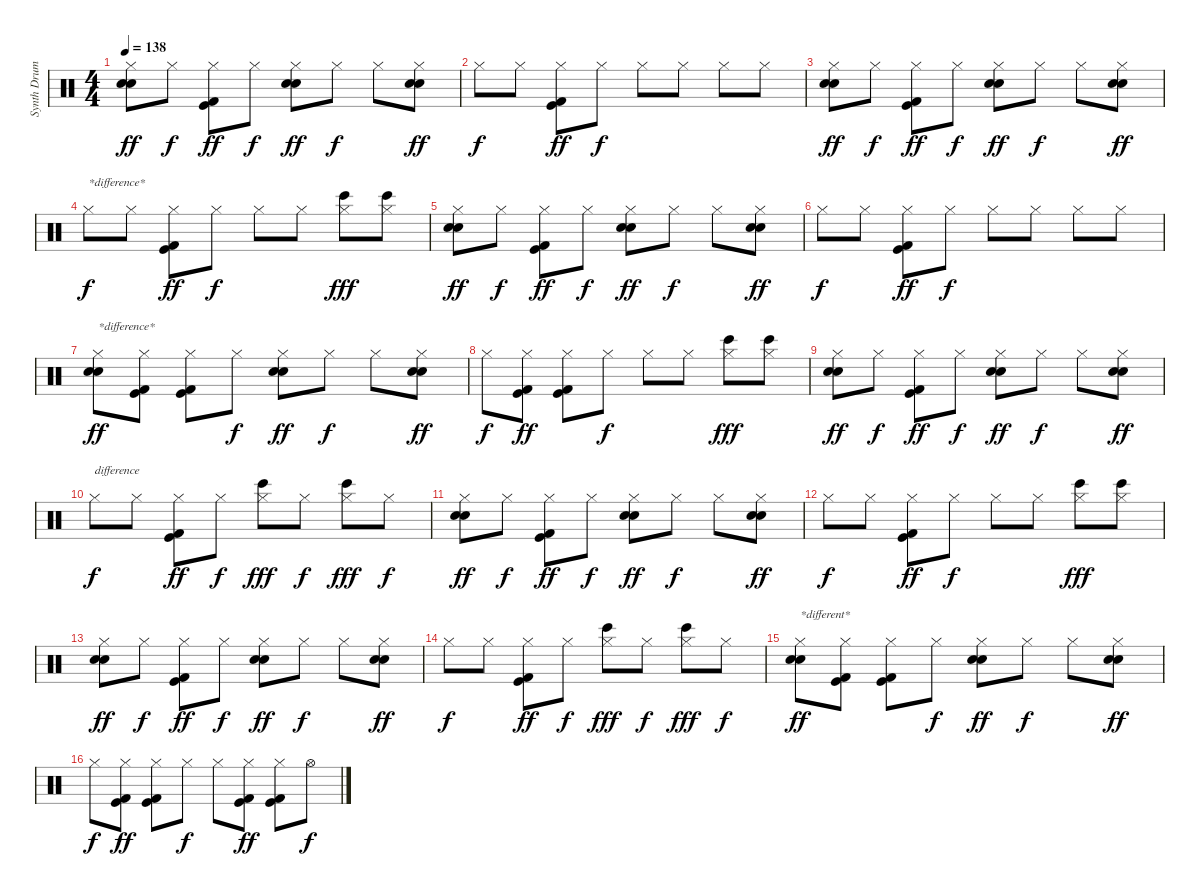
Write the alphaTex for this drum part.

\track ("Synth Drums" "Synth Drum") {instrument percussion}
\staff {score}
\articulation defaults
\ts (4 4)
\tempo 138
\clef neutral
\ks c
("Hi-Hat (closed)" "Electric Snare (hit)" "Snare (hit) 2").8{dy ff} "Hi-Hat (closed)".8{dy f} ("Hi-Hat (closed)" "Kick (hit)" "Kick (hit) 2").8{dy ff} "Hi-Hat (closed)".8{dy f} ("Hi-Hat (closed)" "Electric Snare (hit)" "Snare (hit) 2").8{dy ff} "Hi-Hat (closed)".8{dy f} "Hi-Hat (closed)".8 ("Hi-Hat (closed)" "Electric Snare (hit)" "Snare (hit) 2").8{dy ff} |
"Hi-Hat (closed)".8{dy f} "Hi-Hat (closed)".8 ("Hi-Hat (closed)" "Kick (hit)" "Kick (hit) 2").8{dy ff} "Hi-Hat (closed)".8{dy f} "Hi-Hat (closed)".8 "Hi-Hat (closed)".8 "Hi-Hat (closed)".8 "Hi-Hat (closed)".8 |
("Hi-Hat (closed)" "Electric Snare (hit)" "Snare (hit) 2").8{dy ff} "Hi-Hat (closed)".8{dy f} ("Hi-Hat (closed)" "Kick (hit)" "Kick (hit) 2").8{dy ff} "Hi-Hat (closed)".8{dy f} ("Hi-Hat (closed)" "Electric Snare (hit)" "Snare (hit) 2").8{dy ff} "Hi-Hat (closed)".8{dy f} "Hi-Hat (closed)".8 ("Hi-Hat (closed)" "Electric Snare (hit)" "Snare (hit) 2").8{dy ff} |
"Hi-Hat (closed)".8{txt "*difference*" dy f} "Hi-Hat (closed)".8 ("Hi-Hat (closed)" "Kick (hit)" "Kick (hit) 2").8{dy ff} "Hi-Hat (closed)".8{dy f} "Hi-Hat (closed)".8 "Hi-Hat (closed)".8 ("Hi-Hat (closed)" "Bongo High (hit)").8{dy fff} ("Hi-Hat (closed)" "Bongo High (hit)").8 |
("Hi-Hat (closed)" "Electric Snare (hit)" "Snare (hit) 2").8{dy ff} "Hi-Hat (closed)".8{dy f} ("Hi-Hat (closed)" "Kick (hit)" "Kick (hit) 2").8{dy ff} "Hi-Hat (closed)".8{dy f} ("Hi-Hat (closed)" "Electric Snare (hit)" "Snare (hit) 2").8{dy ff} "Hi-Hat (closed)".8{dy f} "Hi-Hat (closed)".8 ("Hi-Hat (closed)" "Electric Snare (hit)" "Snare (hit) 2").8{dy ff} |
"Hi-Hat (closed)".8{dy f} "Hi-Hat (closed)".8 ("Hi-Hat (closed)" "Kick (hit)" "Kick (hit) 2").8{dy ff} "Hi-Hat (closed)".8{dy f} "Hi-Hat (closed)".8 "Hi-Hat (closed)".8 "Hi-Hat (closed)".8 "Hi-Hat (closed)".8 |
("Hi-Hat (closed)" "Electric Snare (hit)" "Snare (hit) 2").8{txt "*difference*" dy ff} ("Hi-Hat (closed)" "Kick (hit) 2" "Kick (hit)").8 ("Hi-Hat (closed)" "Kick (hit)" "Kick (hit) 2").8 "Hi-Hat (closed)".8{dy f} ("Hi-Hat (closed)" "Electric Snare (hit)" "Snare (hit) 2").8{dy ff} "Hi-Hat (closed)".8{dy f} "Hi-Hat (closed)".8 ("Hi-Hat (closed)" "Electric Snare (hit)" "Snare (hit) 2").8{dy ff} |
"Hi-Hat (closed)".8{dy f} ("Hi-Hat (closed)" "Kick (hit)" "Kick (hit) 2").8{dy ff} ("Hi-Hat (closed)" "Kick (hit)" "Kick (hit) 2").8 "Hi-Hat (closed)".8{dy f} "Hi-Hat (closed)".8 "Hi-Hat (closed)".8 ("Hi-Hat (closed)" "Bongo High (hit)").8{dy fff} ("Hi-Hat (closed)" "Bongo High (hit)").8 |
("Hi-Hat (closed)" "Electric Snare (hit)" "Snare (hit) 2").8{dy ff} "Hi-Hat (closed)".8{dy f} ("Hi-Hat (closed)" "Kick (hit)" "Kick (hit) 2").8{dy ff} "Hi-Hat (closed)".8{dy f} ("Hi-Hat (closed)" "Electric Snare (hit)" "Snare (hit) 2").8{dy ff} "Hi-Hat (closed)".8{dy f} "Hi-Hat (closed)".8 ("Hi-Hat (closed)" "Electric Snare (hit)" "Snare (hit) 2").8{dy ff} |
"Hi-Hat (closed)".8{txt "difference" dy f} "Hi-Hat (closed)".8 ("Hi-Hat (closed)" "Kick (hit)" "Kick (hit) 2").8{dy ff} "Hi-Hat (closed)".8{dy f} ("Hi-Hat (closed)" "Bongo High (hit)").8{dy fff} "Hi-Hat (closed)".8{dy f} ("Hi-Hat (closed)" "Bongo High (hit)").8{dy fff} "Hi-Hat (closed)".8{dy f} |
("Hi-Hat (closed)" "Electric Snare (hit)" "Snare (hit) 2").8{dy ff} "Hi-Hat (closed)".8{dy f} ("Hi-Hat (closed)" "Kick (hit)" "Kick (hit) 2").8{dy ff} "Hi-Hat (closed)".8{dy f} ("Hi-Hat (closed)" "Electric Snare (hit)" "Snare (hit) 2").8{dy ff} "Hi-Hat (closed)".8{dy f} "Hi-Hat (closed)".8 ("Hi-Hat (closed)" "Electric Snare (hit)" "Snare (hit) 2").8{dy ff} |
"Hi-Hat (closed)".8{dy f} "Hi-Hat (closed)".8 ("Hi-Hat (closed)" "Kick (hit)" "Kick (hit) 2").8{dy ff} "Hi-Hat (closed)".8{dy f} "Hi-Hat (closed)".8 "Hi-Hat (closed)".8 ("Hi-Hat (closed)" "Bongo High (hit)").8{dy fff} ("Hi-Hat (closed)" "Bongo High (hit)").8 |
("Hi-Hat (closed)" "Electric Snare (hit)" "Snare (hit) 2").8{dy ff} "Hi-Hat (closed)".8{dy f} ("Hi-Hat (closed)" "Kick (hit)" "Kick (hit) 2").8{dy ff} "Hi-Hat (closed)".8{dy f} ("Hi-Hat (closed)" "Electric Snare (hit)" "Snare (hit) 2").8{dy ff} "Hi-Hat (closed)".8{dy f} "Hi-Hat (closed)".8 ("Hi-Hat (closed)" "Electric Snare (hit)" "Snare (hit) 2").8{dy ff} |
"Hi-Hat (closed)".8{dy f} "Hi-Hat (closed)".8 ("Hi-Hat (closed)" "Kick (hit)" "Kick (hit) 2").8{dy ff} "Hi-Hat (closed)".8{dy f} ("Hi-Hat (closed)" "Bongo High (hit)").8{dy fff} "Hi-Hat (closed)".8{dy f} ("Hi-Hat (closed)" "Bongo High (hit)").8{dy fff} "Hi-Hat (closed)".8{dy f} |
("Hi-Hat (closed)" "Electric Snare (hit)" "Snare (hit) 2").8{txt "*different*" dy ff} ("Hi-Hat (closed)" "Kick (hit)" "Kick (hit) 2").8 ("Hi-Hat (closed)" "Kick (hit)" "Kick (hit) 2").8 "Hi-Hat (closed)".8{dy f} ("Hi-Hat (closed)" "Electric Snare (hit)" "Snare (hit) 2").8{dy ff} "Hi-Hat (closed)".8{dy f} "Hi-Hat (closed)".8 ("Hi-Hat (closed)" "Electric Snare (hit)" "Snare (hit) 2").8{dy ff} |
"Hi-Hat (closed)".8{dy f} ("Hi-Hat (closed)" "Kick (hit)" "Kick (hit) 2").8{dy ff} ("Hi-Hat (closed)" "Kick (hit)" "Kick (hit) 2").8 "Hi-Hat (closed)".8{dy f} "Hi-Hat (closed)".8 ("Hi-Hat (closed)" "Kick (hit)" "Kick (hit) 2").8{dy ff} ("Hi-Hat (closed)" "Kick (hit)" "Kick (hit) 2").8 "Hi-Hat (open)".8{dy f}
